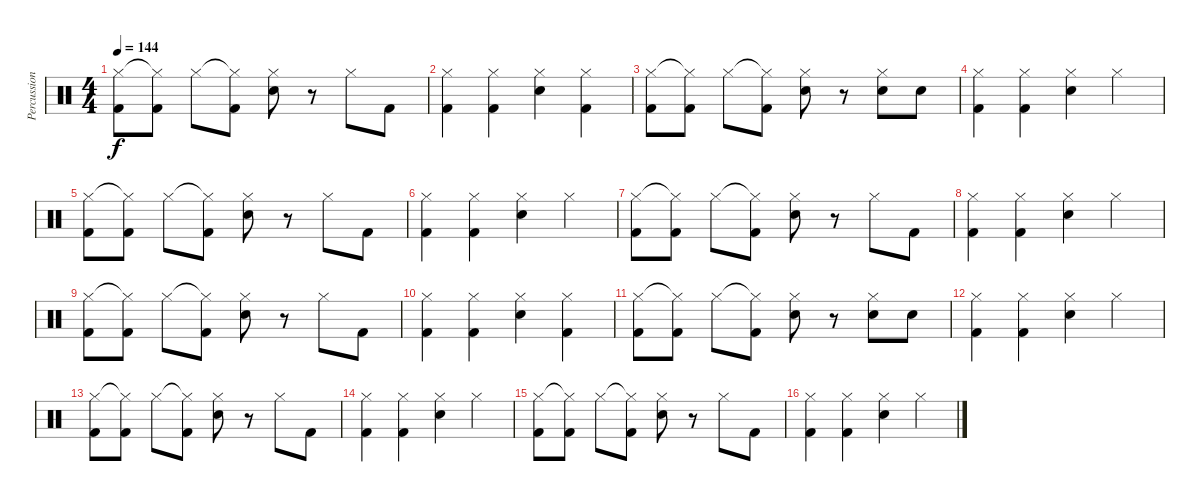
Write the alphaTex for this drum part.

\track ("Percussion" "Percussion") {instrument percussion}
\staff {score}
\articulation defaults
\ts (4 4)
\tempo 144
\clef neutral
\ks c
("Hi-Hat (closed)" "Kick (hit) 2").8{dy f} ("Hi-Hat (closed)"{t} "Kick (hit) 2").8 "Hi-Hat (closed)".8 ("Hi-Hat (closed)"{t} "Kick (hit) 2").8 ("Hi-Hat (closed)" "Snare (hit) 2").8 r.8 "Hi-Hat (closed)".8 "Kick (hit) 2".8 |
("Hi-Hat (closed)" "Kick (hit) 2").4 ("Hi-Hat (closed)" "Kick (hit) 2").4 ("Hi-Hat (closed)" "Snare (hit) 2").4 ("Hi-Hat (closed)" "Kick (hit) 2").4 |
("Hi-Hat (closed)" "Kick (hit) 2").8 ("Hi-Hat (closed)"{t} "Kick (hit) 2").8 "Hi-Hat (closed)".8 ("Hi-Hat (closed)"{t} "Kick (hit) 2").8 ("Hi-Hat (closed)" "Snare (hit) 2").8 r.8 ("Hi-Hat (closed)" "Snare (hit) 2").8 "Snare (hit) 2".8 |
("Hi-Hat (closed)" "Kick (hit) 2").4 ("Hi-Hat (closed)" "Kick (hit) 2").4 ("Hi-Hat (closed)" "Snare (hit) 2").4 "Hi-Hat (closed)".4 |
("Hi-Hat (closed)" "Kick (hit) 2").8 ("Hi-Hat (closed)"{t} "Kick (hit) 2").8 "Hi-Hat (closed)".8 ("Hi-Hat (closed)"{t} "Kick (hit) 2").8 ("Hi-Hat (closed)" "Snare (hit) 2").8 r.8 "Hi-Hat (closed)".8 "Kick (hit) 2".8 |
("Hi-Hat (closed)" "Kick (hit) 2").4 ("Hi-Hat (closed)" "Kick (hit) 2").4 ("Hi-Hat (closed)" "Snare (hit) 2").4 "Hi-Hat (closed)".4 |
("Hi-Hat (closed)" "Kick (hit) 2").8 ("Hi-Hat (closed)"{t} "Kick (hit) 2").8 "Hi-Hat (closed)".8 ("Hi-Hat (closed)"{t} "Kick (hit) 2").8 ("Hi-Hat (closed)" "Snare (hit) 2").8 r.8 "Hi-Hat (closed)".8 "Kick (hit) 2".8 |
("Hi-Hat (closed)" "Kick (hit) 2").4 ("Hi-Hat (closed)" "Kick (hit) 2").4 ("Hi-Hat (closed)" "Snare (hit) 2").4 "Hi-Hat (closed)".4 |
("Hi-Hat (closed)" "Kick (hit) 2").8 ("Hi-Hat (closed)"{t} "Kick (hit) 2").8 "Hi-Hat (closed)".8 ("Hi-Hat (closed)"{t} "Kick (hit) 2").8 ("Hi-Hat (closed)" "Snare (hit) 2").8 r.8 "Hi-Hat (closed)".8 "Kick (hit) 2".8 |
("Hi-Hat (closed)" "Kick (hit) 2").4 ("Hi-Hat (closed)" "Kick (hit) 2").4 ("Hi-Hat (closed)" "Snare (hit) 2").4 ("Hi-Hat (closed)" "Kick (hit) 2").4 |
("Hi-Hat (closed)" "Kick (hit) 2").8 ("Hi-Hat (closed)"{t} "Kick (hit) 2").8 "Hi-Hat (closed)".8 ("Hi-Hat (closed)"{t} "Kick (hit) 2").8 ("Hi-Hat (closed)" "Snare (hit) 2").8 r.8 ("Hi-Hat (closed)" "Snare (hit) 2").8 "Snare (hit) 2".8 |
("Hi-Hat (closed)" "Kick (hit) 2").4 ("Hi-Hat (closed)" "Kick (hit) 2").4 ("Hi-Hat (closed)" "Snare (hit) 2").4 "Hi-Hat (closed)".4 |
("Hi-Hat (closed)" "Kick (hit) 2").8 ("Hi-Hat (closed)"{t} "Kick (hit) 2").8 "Hi-Hat (closed)".8 ("Hi-Hat (closed)"{t} "Kick (hit) 2").8 ("Hi-Hat (closed)" "Snare (hit) 2").8 r.8 "Hi-Hat (closed)".8 "Kick (hit) 2".8 |
("Hi-Hat (closed)" "Kick (hit) 2").4 ("Hi-Hat (closed)" "Kick (hit) 2").4 ("Hi-Hat (closed)" "Snare (hit) 2").4 "Hi-Hat (closed)".4 |
("Hi-Hat (closed)" "Kick (hit) 2").8 ("Hi-Hat (closed)"{t} "Kick (hit) 2").8 "Hi-Hat (closed)".8 ("Hi-Hat (closed)"{t} "Kick (hit) 2").8 ("Hi-Hat (closed)" "Snare (hit) 2").8 r.8 "Hi-Hat (closed)".8 "Kick (hit) 2".8 |
("Hi-Hat (closed)" "Kick (hit) 2").4 ("Hi-Hat (closed)" "Kick (hit) 2").4 ("Hi-Hat (closed)" "Snare (hit) 2").4 "Hi-Hat (closed)".4
